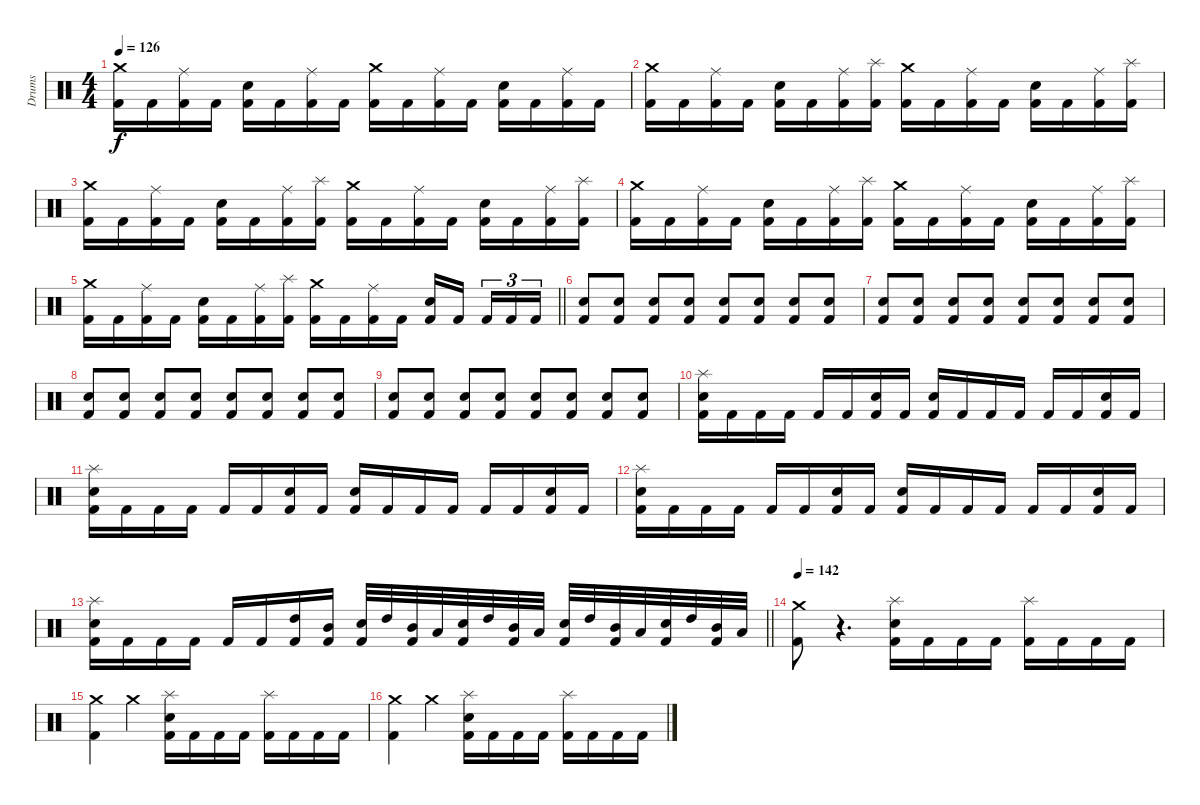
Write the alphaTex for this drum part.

\track ("Drums" "Drums") {instrument percussion}
\staff {score}
\articulation defaults
\ts (4 4)
\tempo 126
\clef neutral
\ks c
("Crash medium (hit)" "Kick (hit) 2").16{dy f} "Kick (hit) 2".16 ("Ride (middle)" "Kick (hit) 2").16 "Kick (hit) 2".16 ("Electric Snare (hit)" "Kick (hit) 2").16 "Kick (hit) 2".16 ("Ride (middle)" "Kick (hit) 2").16 "Kick (hit) 2".16 ("Crash medium (hit)" "Kick (hit) 2").16 "Kick (hit) 2".16 ("Ride (middle)" "Kick (hit) 2").16 "Kick (hit) 2".16 ("Electric Snare (hit)" "Kick (hit) 2").16 "Kick (hit) 2".16 ("Ride (middle)" "Kick (hit) 2").16 "Kick (hit) 2".16 |
("Crash medium (hit)" "Kick (hit) 2").16 "Kick (hit) 2".16 ("Ride (middle)" "Kick (hit) 2").16 "Kick (hit) 2".16 ("Electric Snare (hit)" "Kick (hit) 2").16 "Kick (hit) 2".16 ("Ride (middle)" "Kick (hit) 2").16 ("Splash (hit)" "Kick (hit) 2").16 ("Crash medium (hit)" "Kick (hit) 2").16 "Kick (hit) 2".16 ("Ride (middle)" "Kick (hit) 2").16 "Kick (hit) 2".16 ("Electric Snare (hit)" "Kick (hit) 2").16 "Kick (hit) 2".16 ("Ride (middle)" "Kick (hit) 2").16 ("Splash (hit)" "Kick (hit) 2").16 |
("Crash medium (hit)" "Kick (hit) 2").16 "Kick (hit) 2".16 ("Ride (middle)" "Kick (hit) 2").16 "Kick (hit) 2".16 ("Electric Snare (hit)" "Kick (hit) 2").16 "Kick (hit) 2".16 ("Ride (middle)" "Kick (hit) 2").16 ("Splash (hit)" "Kick (hit) 2").16 ("Crash medium (hit)" "Kick (hit) 2").16 "Kick (hit) 2".16 ("Ride (middle)" "Kick (hit) 2").16 "Kick (hit) 2".16 ("Electric Snare (hit)" "Kick (hit) 2").16 "Kick (hit) 2".16 ("Ride (middle)" "Kick (hit) 2").16 ("Splash (hit)" "Kick (hit) 2").16 |
("Crash medium (hit)" "Kick (hit) 2").16 "Kick (hit) 2".16 ("Ride (middle)" "Kick (hit) 2").16 "Kick (hit) 2".16 ("Electric Snare (hit)" "Kick (hit) 2").16 "Kick (hit) 2".16 ("Ride (middle)" "Kick (hit) 2").16 ("Splash (hit)" "Kick (hit) 2").16 ("Crash medium (hit)" "Kick (hit) 2").16 "Kick (hit) 2".16 ("Ride (middle)" "Kick (hit) 2").16 "Kick (hit) 2".16 ("Electric Snare (hit)" "Kick (hit) 2").16 "Kick (hit) 2".16 ("Ride (middle)" "Kick (hit) 2").16 ("Splash (hit)" "Kick (hit) 2").16 |
\barLineRight lightlight
("Crash medium (hit)" "Kick (hit) 2").16 "Kick (hit) 2".16 ("Ride (middle)" "Kick (hit) 2").16 "Kick (hit) 2".16 ("Electric Snare (hit)" "Kick (hit) 2").16 "Kick (hit) 2".16 ("Ride (middle)" "Kick (hit) 2").16 ("Splash (hit)" "Kick (hit) 2").16 ("Crash medium (hit)" "Kick (hit) 2").16 "Kick (hit) 2".16 ("Ride (middle)" "Kick (hit) 2").16 "Kick (hit) 2".16 ("Electric Snare (hit)" "Kick (hit) 2").16 "Kick (hit) 2".16{beam splitsecondary} "Kick (hit) 2".16{tu (3 2)} "Kick (hit) 2".16{tu (3 2)} "Kick (hit) 2".16{tu (3 2)} |
\section ("" "")
("Electric Snare (hit)" "Kick (hit) 2").8 ("Electric Snare (hit)" "Kick (hit) 2").8 ("Electric Snare (hit)" "Kick (hit) 2").8 ("Electric Snare (hit)" "Kick (hit) 2").8 ("Electric Snare (hit)" "Kick (hit) 2").8 ("Electric Snare (hit)" "Kick (hit) 2").8 ("Electric Snare (hit)" "Kick (hit) 2").8 ("Electric Snare (hit)" "Kick (hit) 2").8 |
("Electric Snare (hit)" "Kick (hit) 2").8 ("Electric Snare (hit)" "Kick (hit) 2").8 ("Electric Snare (hit)" "Kick (hit) 2").8 ("Electric Snare (hit)" "Kick (hit) 2").8 ("Electric Snare (hit)" "Kick (hit) 2").8 ("Electric Snare (hit)" "Kick (hit) 2").8 ("Electric Snare (hit)" "Kick (hit) 2").8 ("Electric Snare (hit)" "Kick (hit) 2").8 |
("Electric Snare (hit)" "Kick (hit) 2").8 ("Electric Snare (hit)" "Kick (hit) 2").8 ("Electric Snare (hit)" "Kick (hit) 2").8 ("Electric Snare (hit)" "Kick (hit) 2").8 ("Electric Snare (hit)" "Kick (hit) 2").8 ("Electric Snare (hit)" "Kick (hit) 2").8 ("Electric Snare (hit)" "Kick (hit) 2").8 ("Electric Snare (hit)" "Kick (hit) 2").8 |
("Electric Snare (hit)" "Kick (hit) 2").8 ("Electric Snare (hit)" "Kick (hit) 2").8 ("Electric Snare (hit)" "Kick (hit) 2").8 ("Electric Snare (hit)" "Kick (hit) 2").8 ("Electric Snare (hit)" "Kick (hit) 2").8 ("Electric Snare (hit)" "Kick (hit) 2").8 ("Electric Snare (hit)" "Kick (hit) 2").8 ("Electric Snare (hit)" "Kick (hit) 2").8 |
("Splash (hit)" "Electric Snare (hit)" "Kick (hit) 2").16 "Kick (hit) 2".16 "Kick (hit) 2".16 "Kick (hit) 2".16 "Kick (hit) 2".16 "Kick (hit) 2".16 ("Electric Snare (hit)" "Kick (hit) 2").16 "Kick (hit) 2".16 ("Electric Snare (hit)" "Kick (hit) 2").16 "Kick (hit) 2".16 "Kick (hit) 2".16 "Kick (hit) 2".16 "Kick (hit) 2".16 "Kick (hit) 2".16 ("Electric Snare (hit)" "Kick (hit) 2").16 "Kick (hit) 2".16 |
("Splash (hit)" "Electric Snare (hit)" "Kick (hit) 2").16 "Kick (hit) 2".16 "Kick (hit) 2".16 "Kick (hit) 2".16 "Kick (hit) 2".16 "Kick (hit) 2".16 ("Electric Snare (hit)" "Kick (hit) 2").16 "Kick (hit) 2".16 ("Electric Snare (hit)" "Kick (hit) 2").16 "Kick (hit) 2".16 "Kick (hit) 2".16 "Kick (hit) 2".16 "Kick (hit) 2".16 "Kick (hit) 2".16 ("Electric Snare (hit)" "Kick (hit) 2").16 "Kick (hit) 2".16 |
("Splash (hit)" "Electric Snare (hit)" "Kick (hit) 2").16 "Kick (hit) 2".16 "Kick (hit) 2".16 "Kick (hit) 2".16 "Kick (hit) 2".16 "Kick (hit) 2".16 ("Electric Snare (hit)" "Kick (hit) 2").16 "Kick (hit) 2".16 ("Electric Snare (hit)" "Kick (hit) 2").16 "Kick (hit) 2".16 "Kick (hit) 2".16 "Kick (hit) 2".16 "Kick (hit) 2".16 "Kick (hit) 2".16 ("Electric Snare (hit)" "Kick (hit) 2").16 "Kick (hit) 2".16 |
\barLineRight lightlight
("Splash (hit)" "Electric Snare (hit)" "Kick (hit) 2").16 "Kick (hit) 2".16 "Kick (hit) 2".16 "Kick (hit) 2".16 "Kick (hit) 2".16 "Kick (hit) 2".16 ("High Tom (hit)" "Kick (hit) 2").16 ("Mid Tom (hit)" "Kick (hit) 2").16 ("Electric Snare (hit)" "Kick (hit) 2").32 "High Tom (hit)".32 ("Mid Tom (hit)" "Kick (hit) 2").32 "Low Tom (hit)".32 ("Electric Snare (hit)" "Kick (hit) 2").32 "High Tom (hit)".32 ("Mid Tom (hit)" "Kick (hit) 2").32 "Low Tom (hit)".32 ("Electric Snare (hit)" "Kick (hit) 2").32 "High Tom (hit)".32 ("Mid Tom (hit)" "Kick (hit) 2").32 "Low Tom (hit)".32 ("Electric Snare (hit)" "Kick (hit) 2").32 "High Tom (hit)".32 ("Mid Tom (hit)" "Kick (hit) 2").32 "Low Tom (hit)".32 |
\section ("" "")
\tempo 142
("Crash medium (hit)" "Kick (hit) 2").8 r.4{d volume 0} ("Splash (hit)" "Electric Snare (hit)" "Kick (hit) 2").16{volume 16} "Kick (hit) 2".16 "Kick (hit) 2".16 "Kick (hit) 2".16 ("Splash (hit)" "Kick (hit) 2").16 "Kick (hit) 2".16 "Kick (hit) 2".16 "Kick (hit) 2".16 |
("Crash medium (hit)" "Kick (hit) 2").4 "Crash medium (hit)".4 ("Splash (hit)" "Electric Snare (hit)" "Kick (hit) 2").16 "Kick (hit) 2".16 "Kick (hit) 2".16 "Kick (hit) 2".16 ("Splash (hit)" "Kick (hit) 2").16 "Kick (hit) 2".16 "Kick (hit) 2".16 "Kick (hit) 2".16 |
("Crash medium (hit)" "Kick (hit) 2").4 "Crash medium (hit)".4 ("Splash (hit)" "Electric Snare (hit)" "Kick (hit) 2").16 "Kick (hit) 2".16 "Kick (hit) 2".16 "Kick (hit) 2".16 ("Splash (hit)" "Kick (hit) 2").16 "Kick (hit) 2".16 "Kick (hit) 2".16 "Kick (hit) 2".16
